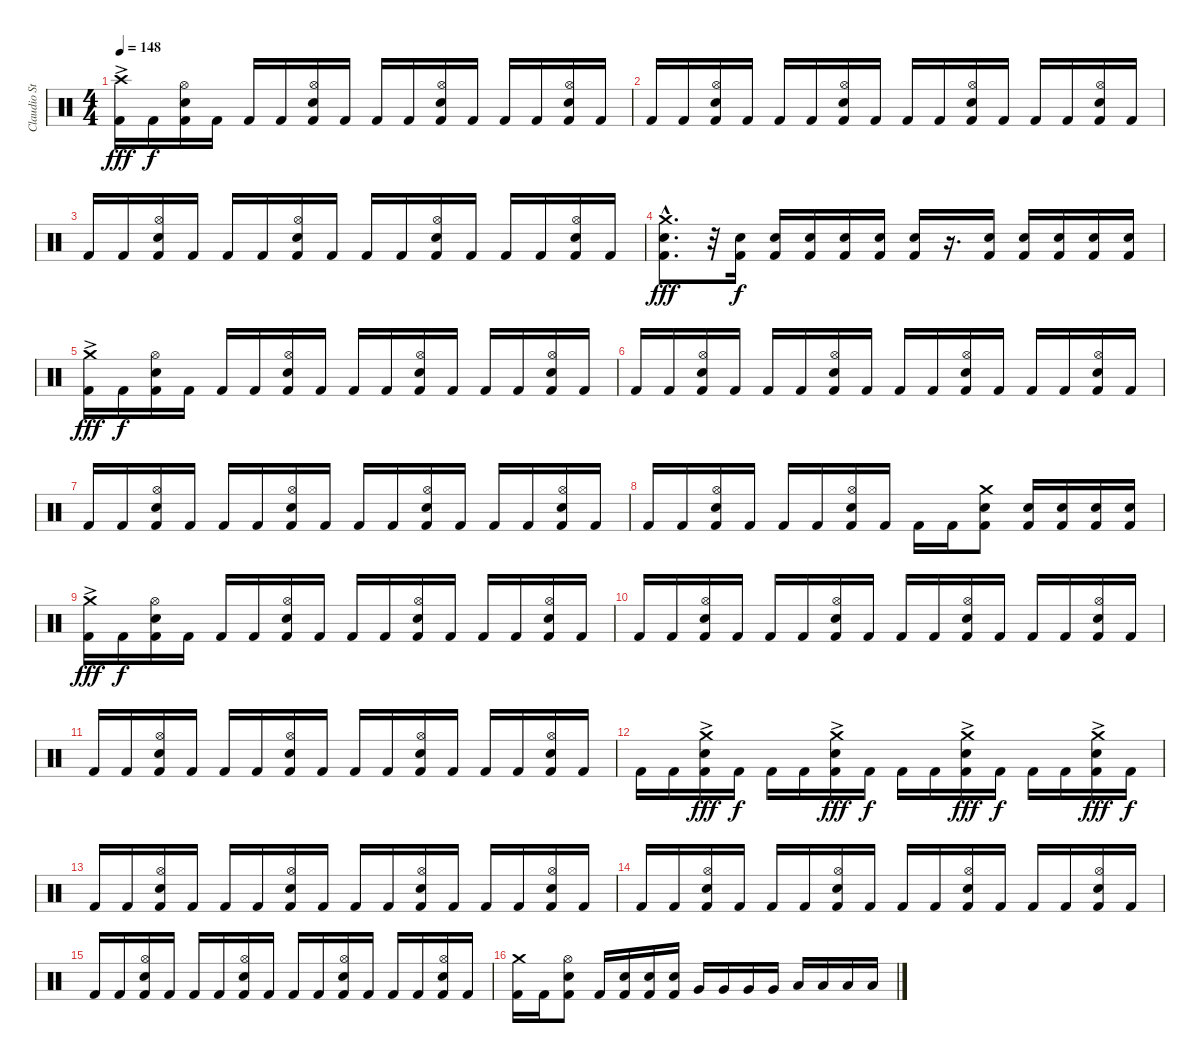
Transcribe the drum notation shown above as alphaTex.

\track ("Claudio Strunz" "Claudio St") {instrument percussion}
\staff {score}
\articulation defaults
\ts (4 4)
\tempo 148
\clef neutral
\ks c
("Crash high (hit)"{ac} "Kick (hit) 2").16{dy fff} "Kick (hit) 2".16{dy f} ("Hi-Hat (open)" "Electric Snare (hit)" "Kick (hit) 2").16 "Kick (hit) 2".16 "Kick (hit) 2".16 "Kick (hit) 2".16 ("Hi-Hat (open)" "Electric Snare (hit)" "Kick (hit) 2").16 "Kick (hit) 2".16 "Kick (hit) 2".16 "Kick (hit) 2".16 ("Hi-Hat (open)" "Electric Snare (hit)" "Kick (hit) 2").16 "Kick (hit) 2".16 "Kick (hit) 2".16 "Kick (hit) 2".16 ("Hi-Hat (open)" "Electric Snare (hit)" "Kick (hit) 2").16 "Kick (hit) 2".16 |
"Kick (hit) 2".16 "Kick (hit) 2".16 ("Hi-Hat (open)" "Electric Snare (hit)" "Kick (hit) 2").16 "Kick (hit) 2".16 "Kick (hit) 2".16 "Kick (hit) 2".16 ("Hi-Hat (open)" "Electric Snare (hit)" "Kick (hit) 2").16 "Kick (hit) 2".16 "Kick (hit) 2".16 "Kick (hit) 2".16 ("Hi-Hat (open)" "Electric Snare (hit)" "Kick (hit) 2").16 "Kick (hit) 2".16 "Kick (hit) 2".16 "Kick (hit) 2".16 ("Hi-Hat (open)" "Electric Snare (hit)" "Kick (hit) 2").16 "Kick (hit) 2".16 |
"Kick (hit) 2".16 "Kick (hit) 2".16 ("Hi-Hat (open)" "Electric Snare (hit)" "Kick (hit) 2").16 "Kick (hit) 2".16 "Kick (hit) 2".16 "Kick (hit) 2".16 ("Hi-Hat (open)" "Electric Snare (hit)" "Kick (hit) 2").16 "Kick (hit) 2".16 "Kick (hit) 2".16 "Kick (hit) 2".16 ("Hi-Hat (open)" "Electric Snare (hit)" "Kick (hit) 2").16 "Kick (hit) 2".16 "Kick (hit) 2".16 "Kick (hit) 2".16 ("Hi-Hat (open)" "Electric Snare (hit)" "Kick (hit) 2").16 "Kick (hit) 2".16 |
("Crash medium (hit)"{hac} "Electric Snare (hit)"{hac} "Kick (hit) 2"{hac}).8{d dy fff} r.32 ("Electric Snare (hit)" "Kick (hit) 2").16{dy f} ("Electric Snare (hit)" "Kick (hit) 2").16 ("Electric Snare (hit)" "Kick (hit) 2").16 ("Electric Snare (hit)" "Kick (hit) 2").16 ("Electric Snare (hit)" "Kick (hit) 2").16 ("Electric Snare (hit)" "Kick (hit) 2").16 r.16{d} ("Electric Snare (hit)" "Kick (hit) 2").16 ("Electric Snare (hit)" "Kick (hit) 2").16 ("Electric Snare (hit)" "Kick (hit) 2").16 ("Electric Snare (hit)" "Kick (hit) 2").16 ("Electric Snare (hit)" "Kick (hit) 2").16 |
("Crash medium (hit)"{ac} "Kick (hit) 2").16{dy fff} "Kick (hit) 2".16{dy f} ("Hi-Hat (open)" "Electric Snare (hit)" "Kick (hit) 2").16 "Kick (hit) 2".16 "Kick (hit) 2".16 "Kick (hit) 2".16 ("Hi-Hat (open)" "Electric Snare (hit)" "Kick (hit) 2").16 "Kick (hit) 2".16 "Kick (hit) 2".16 "Kick (hit) 2".16 ("Hi-Hat (open)" "Electric Snare (hit)" "Kick (hit) 2").16 "Kick (hit) 2".16 "Kick (hit) 2".16 "Kick (hit) 2".16 ("Hi-Hat (open)" "Electric Snare (hit)" "Kick (hit) 2").16 "Kick (hit) 2".16 |
"Kick (hit) 2".16 "Kick (hit) 2".16 ("Hi-Hat (open)" "Electric Snare (hit)" "Kick (hit) 2").16 "Kick (hit) 2".16 "Kick (hit) 2".16 "Kick (hit) 2".16 ("Hi-Hat (open)" "Electric Snare (hit)" "Kick (hit) 2").16 "Kick (hit) 2".16 "Kick (hit) 2".16 "Kick (hit) 2".16 ("Hi-Hat (open)" "Electric Snare (hit)" "Kick (hit) 2").16 "Kick (hit) 2".16 "Kick (hit) 2".16 "Kick (hit) 2".16 ("Hi-Hat (open)" "Electric Snare (hit)" "Kick (hit) 2").16 "Kick (hit) 2".16 |
"Kick (hit) 2".16 "Kick (hit) 2".16 ("Hi-Hat (open)" "Electric Snare (hit)" "Kick (hit) 2").16 "Kick (hit) 2".16 "Kick (hit) 2".16 "Kick (hit) 2".16 ("Hi-Hat (open)" "Electric Snare (hit)" "Kick (hit) 2").16 "Kick (hit) 2".16 "Kick (hit) 2".16 "Kick (hit) 2".16 ("Hi-Hat (open)" "Electric Snare (hit)" "Kick (hit) 2").16 "Kick (hit) 2".16 "Kick (hit) 2".16 "Kick (hit) 2".16 ("Hi-Hat (open)" "Electric Snare (hit)" "Kick (hit) 2").16 "Kick (hit) 2".16 |
"Kick (hit) 2".16 "Kick (hit) 2".16 ("Hi-Hat (open)" "Electric Snare (hit)" "Kick (hit) 2").16 "Kick (hit) 2".16 "Kick (hit) 2".16 "Kick (hit) 2".16 ("Hi-Hat (open)" "Electric Snare (hit)" "Kick (hit) 2").16 "Kick (hit) 2".16 "Kick (hit) 2".16 "Kick (hit) 2".16 ("Crash medium (hit)" "Electric Snare (hit)" "Kick (hit) 2").8 ("Electric Snare (hit)" "Kick (hit) 2").16 ("Electric Snare (hit)" "Kick (hit) 2").16 ("Electric Snare (hit)" "Kick (hit) 2").16 ("Electric Snare (hit)" "Kick (hit) 2").16 |
("Crash medium (hit)"{ac} "Kick (hit) 2").16{dy fff} "Kick (hit) 2".16{dy f} ("Hi-Hat (open)" "Electric Snare (hit)" "Kick (hit) 2").16 "Kick (hit) 2".16 "Kick (hit) 2".16 "Kick (hit) 2".16 ("Hi-Hat (open)" "Electric Snare (hit)" "Kick (hit) 2").16 "Kick (hit) 2".16 "Kick (hit) 2".16 "Kick (hit) 2".16 ("Hi-Hat (open)" "Electric Snare (hit)" "Kick (hit) 2").16 "Kick (hit) 2".16 "Kick (hit) 2".16 "Kick (hit) 2".16 ("Hi-Hat (open)" "Electric Snare (hit)" "Kick (hit) 2").16 "Kick (hit) 2".16 |
"Kick (hit) 2".16 "Kick (hit) 2".16 ("Hi-Hat (open)" "Electric Snare (hit)" "Kick (hit) 2").16 "Kick (hit) 2".16 "Kick (hit) 2".16 "Kick (hit) 2".16 ("Hi-Hat (open)" "Electric Snare (hit)" "Kick (hit) 2").16 "Kick (hit) 2".16 "Kick (hit) 2".16 "Kick (hit) 2".16 ("Hi-Hat (open)" "Electric Snare (hit)" "Kick (hit) 2").16 "Kick (hit) 2".16 "Kick (hit) 2".16 "Kick (hit) 2".16 ("Hi-Hat (open)" "Electric Snare (hit)" "Kick (hit) 2").16 "Kick (hit) 2".16 |
"Kick (hit) 2".16 "Kick (hit) 2".16 ("Hi-Hat (open)" "Electric Snare (hit)" "Kick (hit) 2").16 "Kick (hit) 2".16 "Kick (hit) 2".16 "Kick (hit) 2".16 ("Hi-Hat (open)" "Electric Snare (hit)" "Kick (hit) 2").16 "Kick (hit) 2".16 "Kick (hit) 2".16 "Kick (hit) 2".16 ("Hi-Hat (open)" "Electric Snare (hit)" "Kick (hit) 2").16 "Kick (hit) 2".16 "Kick (hit) 2".16 "Kick (hit) 2".16 ("Hi-Hat (open)" "Electric Snare (hit)" "Kick (hit) 2").16 "Kick (hit) 2".16 |
"Kick (hit) 2".16 "Kick (hit) 2".16 ("Crash medium (hit)"{ac} "Electric Snare (hit)" "Kick (hit) 2").16{dy fff} "Kick (hit) 2".16{dy f} "Kick (hit) 2".16 "Kick (hit) 2".16 ("Crash medium (hit)"{ac} "Electric Snare (hit)" "Kick (hit) 2").16{dy fff} "Kick (hit) 2".16{dy f} "Kick (hit) 2".16 "Kick (hit) 2".16 ("Crash medium (hit)"{ac} "Electric Snare (hit)" "Kick (hit) 2").16{dy fff} "Kick (hit) 2".16{dy f} "Kick (hit) 2".16 "Kick (hit) 2".16 ("Crash medium (hit)"{ac} "Electric Snare (hit)" "Kick (hit) 2").16{dy fff} "Kick (hit) 2".16{dy f} |
"Kick (hit) 2".16 "Kick (hit) 2".16 ("Hi-Hat (open)" "Electric Snare (hit)" "Kick (hit) 2").16 "Kick (hit) 2".16 "Kick (hit) 2".16 "Kick (hit) 2".16 ("Hi-Hat (open)" "Electric Snare (hit)" "Kick (hit) 2").16 "Kick (hit) 2".16 "Kick (hit) 2".16 "Kick (hit) 2".16 ("Hi-Hat (open)" "Electric Snare (hit)" "Kick (hit) 2").16 "Kick (hit) 2".16 "Kick (hit) 2".16 "Kick (hit) 2".16 ("Hi-Hat (open)" "Electric Snare (hit)" "Kick (hit) 2").16 "Kick (hit) 2".16 |
"Kick (hit) 2".16 "Kick (hit) 2".16 ("Hi-Hat (open)" "Electric Snare (hit)" "Kick (hit) 2").16 "Kick (hit) 2".16 "Kick (hit) 2".16 "Kick (hit) 2".16 ("Hi-Hat (open)" "Electric Snare (hit)" "Kick (hit) 2").16 "Kick (hit) 2".16 "Kick (hit) 2".16 "Kick (hit) 2".16 ("Hi-Hat (open)" "Electric Snare (hit)" "Kick (hit) 2").16 "Kick (hit) 2".16 "Kick (hit) 2".16 "Kick (hit) 2".16 ("Hi-Hat (open)" "Electric Snare (hit)" "Kick (hit) 2").16 "Kick (hit) 2".16 |
"Kick (hit) 2".16 "Kick (hit) 2".16 ("Hi-Hat (open)" "Electric Snare (hit)" "Kick (hit) 2").16 "Kick (hit) 2".16 "Kick (hit) 2".16 "Kick (hit) 2".16 ("Hi-Hat (open)" "Electric Snare (hit)" "Kick (hit) 2").16 "Kick (hit) 2".16 "Kick (hit) 2".16 "Kick (hit) 2".16 ("Hi-Hat (open)" "Electric Snare (hit)" "Kick (hit) 2").16 "Kick (hit) 2".16 "Kick (hit) 2".16 "Kick (hit) 2".16 ("Hi-Hat (open)" "Electric Snare (hit)" "Kick (hit) 2").16 "Kick (hit) 2".16 |
("Crash medium (hit)" "Kick (hit) 2").16 "Kick (hit) 2".16 ("Hi-Hat (open)" "Electric Snare (hit)" "Kick (hit) 2").8 "Kick (hit) 2".16 ("Electric Snare (hit)" "Kick (hit) 2").16 ("Electric Snare (hit)" "Kick (hit) 2").16 ("Electric Snare (hit)" "Kick (hit) 2").16 "Very Low Tom (hit)".16 "Very Low Tom (hit)".16 "Very Low Tom (hit)".16 "Very Low Tom (hit)".16 "Low Tom (hit)".16 "Low Tom (hit)".16 "Low Tom (hit)".16 "Low Tom (hit)".16
